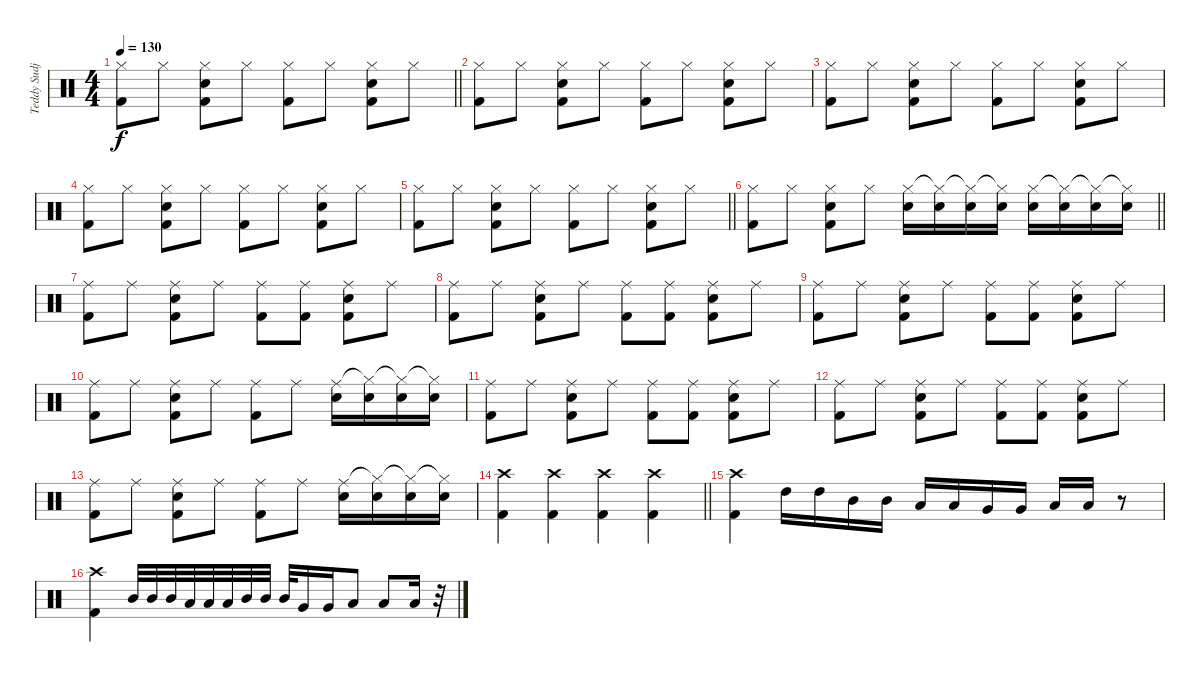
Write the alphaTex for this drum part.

\track ("Teddy Sudjaya (drum)" "Teddy Sudj") {instrument percussion}
\staff {score}
\articulation defaults
\ts (4 4)
\tempo 130
\clef neutral
\barLineRight lightlight
\ks c
("Hi-Hat (closed)" "Kick (hit) 2").8{dy f} "Hi-Hat (closed)".8 ("Snare (hit) 2" "Hi-Hat (closed)" "Kick (hit) 2").8 "Hi-Hat (closed)".8 ("Hi-Hat (closed)" "Kick (hit) 2").8 "Hi-Hat (closed)".8 ("Snare (hit) 2" "Hi-Hat (closed)" "Kick (hit) 2").8 "Hi-Hat (closed)".8 |
("Hi-Hat (closed)" "Kick (hit) 2").8 "Hi-Hat (closed)".8 ("Snare (hit) 2" "Hi-Hat (closed)" "Kick (hit) 2").8 "Hi-Hat (closed)".8 ("Hi-Hat (closed)" "Kick (hit) 2").8 "Hi-Hat (closed)".8 ("Snare (hit) 2" "Hi-Hat (closed)" "Kick (hit) 2").8 "Hi-Hat (closed)".8 |
("Hi-Hat (closed)" "Kick (hit) 2").8 "Hi-Hat (closed)".8 ("Snare (hit) 2" "Hi-Hat (closed)" "Kick (hit) 2").8 "Hi-Hat (closed)".8 ("Hi-Hat (closed)" "Kick (hit) 2").8 "Hi-Hat (closed)".8 ("Snare (hit) 2" "Hi-Hat (closed)" "Kick (hit) 2").8 "Hi-Hat (closed)".8 |
("Hi-Hat (closed)" "Kick (hit) 2").8 "Hi-Hat (closed)".8 ("Hi-Hat (closed)" "Snare (hit) 2" "Kick (hit) 2").8 "Hi-Hat (closed)".8 ("Hi-Hat (closed)" "Kick (hit) 2").8 "Hi-Hat (closed)".8 ("Hi-Hat (closed)" "Snare (hit) 2" "Kick (hit) 2").8 "Hi-Hat (closed)".8 |
\barLineRight lightlight
("Hi-Hat (closed)" "Kick (hit) 2").8 "Hi-Hat (closed)".8 ("Hi-Hat (closed)" "Snare (hit) 2" "Kick (hit) 2").8 "Hi-Hat (closed)".8 ("Hi-Hat (closed)" "Kick (hit) 2").8 "Hi-Hat (closed)".8 ("Hi-Hat (closed)" "Snare (hit) 2" "Kick (hit) 2").8 "Hi-Hat (closed)".8 |
\barLineRight lightlight
("Hi-Hat (closed)" "Kick (hit) 2").8 "Hi-Hat (closed)".8 ("Hi-Hat (closed)" "Snare (hit) 2" "Kick (hit) 2").8 "Hi-Hat (closed)".8 ("Hi-Hat (closed)" "Snare (hit) 2").16 ("Hi-Hat (closed)"{t} "Snare (hit) 2").16 ("Hi-Hat (closed)"{t} "Snare (hit) 2").16 ("Hi-Hat (closed)"{t} "Snare (hit) 2").16 ("Hi-Hat (closed)" "Snare (hit) 2").16 ("Hi-Hat (closed)"{t} "Snare (hit) 2").16 ("Hi-Hat (closed)"{t} "Snare (hit) 2").16 ("Hi-Hat (closed)"{t} "Snare (hit) 2").16 |
("Ride (middle)" "Kick (hit) 2").8 "Ride (middle)".8 ("Ride (middle)" "Snare (hit) 2" "Kick (hit) 2").8 "Ride (middle)".8 ("Ride (middle)" "Kick (hit) 2").8 ("Ride (middle)" "Kick (hit) 2").8 ("Ride (middle)" "Snare (hit) 2" "Kick (hit) 2").8 "Ride (middle)".8 |
("Ride (middle)" "Kick (hit) 2").8 "Ride (middle)".8 ("Ride (middle)" "Snare (hit) 2" "Kick (hit) 2").8 "Ride (middle)".8 ("Ride (middle)" "Kick (hit) 2").8 ("Ride (middle)" "Kick (hit) 2").8 ("Ride (middle)" "Snare (hit) 2" "Kick (hit) 2").8 "Ride (middle)".8 |
("Ride (middle)" "Kick (hit) 2").8 "Ride (middle)".8 ("Ride (middle)" "Snare (hit) 2" "Kick (hit) 2").8 "Ride (middle)".8 ("Ride (middle)" "Kick (hit) 2").8 ("Ride (middle)" "Kick (hit) 2").8 ("Ride (middle)" "Snare (hit) 2" "Kick (hit) 2").8 "Ride (middle)".8 |
("Ride (middle)" "Kick (hit) 2").8 "Ride (middle)".8 ("Ride (middle)" "Snare (hit) 2" "Kick (hit) 2").8 "Ride (middle)".8 ("Ride (middle)" "Kick (hit) 2").8 "Ride (middle)".8 ("Ride (middle)" "Snare (hit) 2").16 ("Hi-Hat (closed)"{t} "Snare (hit) 2").16 ("Hi-Hat (closed)"{t} "Snare (hit) 2").16 ("Hi-Hat (closed)"{t} "Snare (hit) 2").16 |
("Ride (middle)" "Kick (hit) 2").8 "Ride (middle)".8 ("Ride (middle)" "Snare (hit) 2" "Kick (hit) 2").8 "Ride (middle)".8 ("Ride (middle)" "Kick (hit) 2").8 ("Ride (middle)" "Kick (hit) 2").8 ("Ride (middle)" "Snare (hit) 2" "Kick (hit) 2").8 "Ride (middle)".8 |
("Ride (middle)" "Kick (hit) 2").8 "Ride (middle)".8 ("Ride (middle)" "Snare (hit) 2" "Kick (hit) 2").8 "Ride (middle)".8 ("Ride (middle)" "Kick (hit) 2").8 ("Ride (middle)" "Kick (hit) 2").8 ("Ride (middle)" "Snare (hit) 2" "Kick (hit) 2").8 "Ride (middle)".8 |
("Ride (middle)" "Kick (hit) 2").8 "Ride (middle)".8 ("Ride (middle)" "Snare (hit) 2" "Kick (hit) 2").8 "Ride (middle)".8 ("Ride (middle)" "Kick (hit) 2").8 "Ride (middle)".8 ("Ride (middle)" "Snare (hit) 2").16 ("Hi-Hat (closed)"{t} "Snare (hit) 2").16 ("Hi-Hat (closed)"{t} "Snare (hit) 2").16 ("Hi-Hat (closed)"{t} "Snare (hit) 2").16 |
\barLineRight lightlight
("Crash high (hit)" "Kick (hit) 2").4 ("Crash high (hit)" "Kick (hit) 2").4 ("Crash high (hit)" "Kick (hit) 2").4 ("Crash high (hit)" "Kick (hit) 2").4 |
("Crash high (hit)" "Kick (hit) 2").4 "High Tom (hit)".16 "High Tom (hit)".16 "Mid Tom (hit)".16 "Mid Tom (hit)".16 "Low Tom (hit)".16 "Low Tom (hit)".16 "Very Low Tom (hit)".16 "Very Low Tom (hit)".16 "Low Floor Tom (hit)".16 "Low Floor Tom (hit)".16 r.8 |
("Crash high (hit)" "Kick (hit) 2").4 "Mid Tom (hit)".32 "Mid Tom (hit)".32 "Mid Tom (hit)".32 "Low Tom (hit)".32 "Low Tom (hit)".32 "Low Tom (hit)".32 "Mid Tom (hit)".32 "Mid Tom (hit)".32 "Mid Tom (hit)".32 "Very Low Tom (hit)".16 "Very Low Tom (hit)".16 "Low Floor Tom (hit)".8 "Low Floor Tom (hit)".8 "Low Floor Tom (hit)".16 r.32
